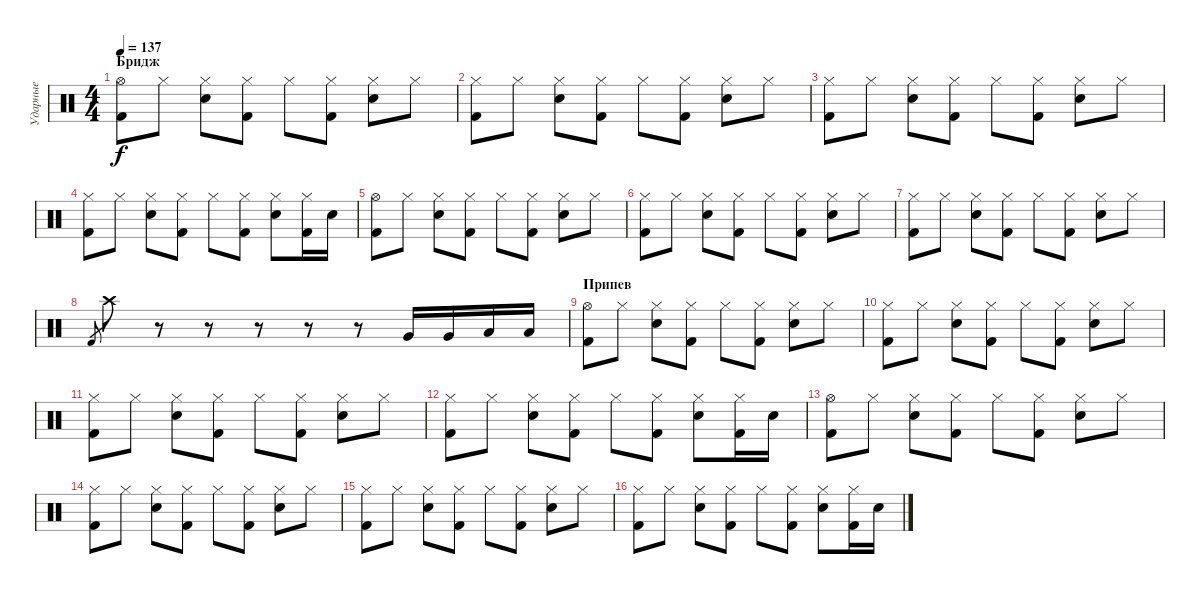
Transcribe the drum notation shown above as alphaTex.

\track ("Ударные" "Ударные") {instrument percussion}
\staff {score}
\articulation defaults
\ts (4 4)
\section ("" "Бридж")
\tempo 137
\clef neutral
\ks c
("Hi-Hat (open)" "Kick (hit) 2").8{dy f} "Hi-Hat (closed)".8 ("Hi-Hat (closed)" "Electric Snare (hit)").8 ("Hi-Hat (closed)" "Kick (hit) 2").8 "Hi-Hat (closed)".8 ("Hi-Hat (closed)" "Kick (hit) 2").8 ("Hi-Hat (closed)" "Electric Snare (hit)").8 "Hi-Hat (closed)".8 |
("Hi-Hat (closed)" "Kick (hit) 2").8 "Hi-Hat (closed)".8 ("Hi-Hat (closed)" "Electric Snare (hit)").8 ("Hi-Hat (closed)" "Kick (hit) 2").8 "Hi-Hat (closed)".8 ("Hi-Hat (closed)" "Kick (hit) 2").8 ("Hi-Hat (closed)" "Electric Snare (hit)").8 "Hi-Hat (closed)".8 |
("Hi-Hat (closed)" "Kick (hit) 2").8 "Hi-Hat (closed)".8 ("Hi-Hat (closed)" "Electric Snare (hit)").8 ("Hi-Hat (closed)" "Kick (hit) 2").8 "Hi-Hat (closed)".8 ("Hi-Hat (closed)" "Kick (hit) 2").8 ("Hi-Hat (closed)" "Electric Snare (hit)").8 "Hi-Hat (closed)".8 |
("Hi-Hat (closed)" "Kick (hit) 2").8 "Hi-Hat (closed)".8 ("Hi-Hat (closed)" "Electric Snare (hit)").8 ("Hi-Hat (closed)" "Kick (hit) 2").8 "Hi-Hat (closed)".8 ("Hi-Hat (closed)" "Kick (hit) 2").8 ("Hi-Hat (closed)" "Electric Snare (hit)").8 ("Hi-Hat (closed)" "Kick (hit) 2").16 "Electric Snare (hit)".16 |
("Hi-Hat (open)" "Kick (hit) 2").8 "Hi-Hat (closed)".8 ("Hi-Hat (closed)" "Electric Snare (hit)").8 ("Hi-Hat (closed)" "Kick (hit) 2").8 "Hi-Hat (closed)".8 ("Hi-Hat (closed)" "Kick (hit) 2").8 ("Hi-Hat (closed)" "Electric Snare (hit)").8 "Hi-Hat (closed)".8 |
("Hi-Hat (closed)" "Kick (hit) 2").8 "Hi-Hat (closed)".8 ("Hi-Hat (closed)" "Electric Snare (hit)").8 ("Hi-Hat (closed)" "Kick (hit) 2").8 "Hi-Hat (closed)".8 ("Hi-Hat (closed)" "Kick (hit) 2").8 ("Hi-Hat (closed)" "Electric Snare (hit)").8 "Hi-Hat (closed)".8 |
("Hi-Hat (closed)" "Kick (hit) 2").8 "Hi-Hat (closed)".8 ("Hi-Hat (closed)" "Electric Snare (hit)").8 ("Hi-Hat (closed)" "Kick (hit) 2").8 "Hi-Hat (closed)".8 ("Hi-Hat (closed)" "Kick (hit) 2").8 ("Hi-Hat (closed)" "Electric Snare (hit)").8 "Hi-Hat (closed)".8 |
"Kick (hit) 2".8{gr} "Crash high (hit)".8 r.8 r.8 r.8 r.8 r.8 "Very Low Tom (hit)".16 "Very Low Tom (hit)".16 "Low Tom (hit)".16 "Low Tom (hit)".16 |
\section ("" "Припев")
("Hi-Hat (open)" "Kick (hit) 2").8 "Hi-Hat (closed)".8 ("Hi-Hat (closed)" "Electric Snare (hit)").8 ("Hi-Hat (closed)" "Kick (hit) 2").8 "Hi-Hat (closed)".8 ("Hi-Hat (closed)" "Kick (hit) 2").8 ("Hi-Hat (closed)" "Electric Snare (hit)").8 "Hi-Hat (closed)".8 |
("Hi-Hat (closed)" "Kick (hit) 2").8 "Hi-Hat (closed)".8 ("Hi-Hat (closed)" "Electric Snare (hit)").8 ("Hi-Hat (closed)" "Kick (hit) 2").8 "Hi-Hat (closed)".8 ("Hi-Hat (closed)" "Kick (hit) 2").8 ("Hi-Hat (closed)" "Electric Snare (hit)").8 "Hi-Hat (closed)".8 |
("Hi-Hat (closed)" "Kick (hit) 2").8 "Hi-Hat (closed)".8 ("Hi-Hat (closed)" "Electric Snare (hit)").8 ("Hi-Hat (closed)" "Kick (hit) 2").8 "Hi-Hat (closed)".8 ("Hi-Hat (closed)" "Kick (hit) 2").8 ("Hi-Hat (closed)" "Electric Snare (hit)").8 "Hi-Hat (closed)".8 |
("Hi-Hat (closed)" "Kick (hit) 2").8 "Hi-Hat (closed)".8 ("Hi-Hat (closed)" "Electric Snare (hit)").8 ("Hi-Hat (closed)" "Kick (hit) 2").8 "Hi-Hat (closed)".8 ("Hi-Hat (closed)" "Kick (hit) 2").8 ("Hi-Hat (closed)" "Electric Snare (hit)").8 ("Hi-Hat (closed)" "Kick (hit) 2").16 "Electric Snare (hit)".16 |
("Hi-Hat (open)" "Kick (hit) 2").8 "Hi-Hat (closed)".8 ("Hi-Hat (closed)" "Electric Snare (hit)").8 ("Hi-Hat (closed)" "Kick (hit) 2").8 "Hi-Hat (closed)".8 ("Hi-Hat (closed)" "Kick (hit) 2").8 ("Hi-Hat (closed)" "Electric Snare (hit)").8 "Hi-Hat (closed)".8 |
("Hi-Hat (closed)" "Kick (hit) 2").8 "Hi-Hat (closed)".8 ("Hi-Hat (closed)" "Electric Snare (hit)").8 ("Hi-Hat (closed)" "Kick (hit) 2").8 "Hi-Hat (closed)".8 ("Hi-Hat (closed)" "Kick (hit) 2").8 ("Hi-Hat (closed)" "Electric Snare (hit)").8 "Hi-Hat (closed)".8 |
("Hi-Hat (closed)" "Kick (hit) 2").8 "Hi-Hat (closed)".8 ("Hi-Hat (closed)" "Electric Snare (hit)").8 ("Hi-Hat (closed)" "Kick (hit) 2").8 "Hi-Hat (closed)".8 ("Hi-Hat (closed)" "Kick (hit) 2").8 ("Hi-Hat (closed)" "Electric Snare (hit)").8 "Hi-Hat (closed)".8 |
("Hi-Hat (closed)" "Kick (hit) 2").8 "Hi-Hat (closed)".8 ("Hi-Hat (closed)" "Electric Snare (hit)").8 ("Hi-Hat (closed)" "Kick (hit) 2").8 "Hi-Hat (closed)".8 ("Hi-Hat (closed)" "Kick (hit) 2").8 ("Hi-Hat (closed)" "Electric Snare (hit)").8 ("Hi-Hat (closed)" "Kick (hit) 2").16 "Electric Snare (hit)".16
